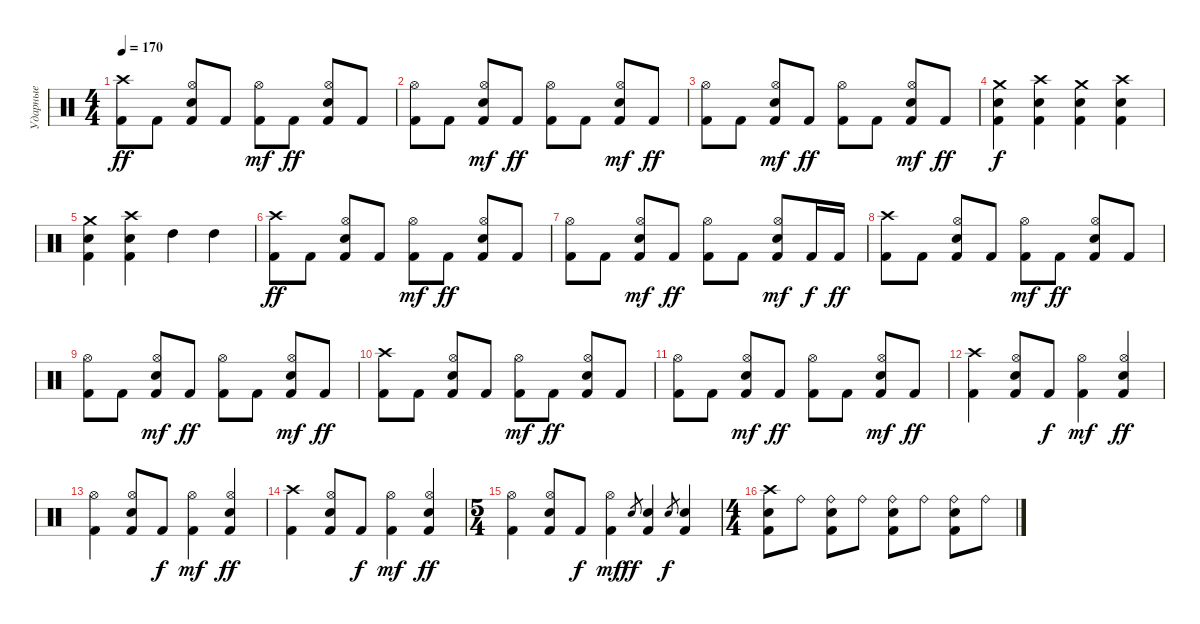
\track ("Ударные" "Ударные") {instrument percussion}
\staff {score}
\articulation defaults
\ts (4 4)
\tempo 170
\clef neutral
\ks c
("Crash high (hit)" "Kick (hit) 2").8{dy ff} "Kick (hit) 2".8 ("Hi-Hat (open)" "Kick (hit) 2" "Electric Snare (hit)").8 "Kick (hit) 2".8 ("Kick (hit) 2" "Hi-Hat (open)").8{dy mf} "Kick (hit) 2".8{dy ff} ("Kick (hit) 2" "Hi-Hat (open)" "Electric Snare (hit)").8 "Kick (hit) 2".8 |
("Hi-Hat (open)" "Kick (hit) 2").8 "Kick (hit) 2".8 ("Kick (hit) 2" "Electric Snare (hit)" "Hi-Hat (open)").8{dy mf} "Kick (hit) 2".8{dy ff} ("Hi-Hat (open)" "Kick (hit) 2").8 "Kick (hit) 2".8 ("Kick (hit) 2" "Electric Snare (hit)" "Hi-Hat (open)").8{dy mf} "Kick (hit) 2".8{dy ff} |
("Hi-Hat (open)" "Kick (hit) 2").8 "Kick (hit) 2".8 ("Kick (hit) 2" "Electric Snare (hit)" "Hi-Hat (open)").8{dy mf} "Kick (hit) 2".8{dy ff} ("Hi-Hat (open)" "Kick (hit) 2").8 "Kick (hit) 2".8 ("Kick (hit) 2" "Electric Snare (hit)" "Hi-Hat (open)").8{dy mf} "Kick (hit) 2".8{dy ff} |
("Crash medium (hit)" "Kick (hit) 2" "Electric Snare (hit)").4{dy f} ("Crash high (hit)" "Kick (hit) 2" "Electric Snare (hit)").4 ("Crash medium (hit)" "Electric Snare (hit)" "Kick (hit) 2").4 ("Crash high (hit)" "Kick (hit) 2" "Electric Snare (hit)").4 |
("Crash medium (hit)" "Kick (hit) 2" "Electric Snare (hit)").4 ("Crash high (hit)" "Kick (hit) 2" "Electric Snare (hit)").4 "High Tom (hit)".4 "High Tom (hit)".4 |
("Crash high (hit)" "Kick (hit) 2").8{dy ff} "Kick (hit) 2".8 ("Hi-Hat (open)" "Kick (hit) 2" "Electric Snare (hit)").8 "Kick (hit) 2".8 ("Kick (hit) 2" "Hi-Hat (open)").8{dy mf} "Kick (hit) 2".8{dy ff} ("Kick (hit) 2" "Hi-Hat (open)" "Electric Snare (hit)").8 "Kick (hit) 2".8 |
("Hi-Hat (open)" "Kick (hit) 2").8 "Kick (hit) 2".8 ("Kick (hit) 2" "Electric Snare (hit)" "Hi-Hat (open)").8{dy mf} "Kick (hit) 2".8{dy ff} ("Hi-Hat (open)" "Kick (hit) 2").8 "Kick (hit) 2".8 ("Kick (hit) 2" "Electric Snare (hit)" "Hi-Hat (open)").8{dy mf} "Kick (hit) 2".16{dy f} "Kick (hit) 2".16{dy ff} |
("Crash high (hit)" "Kick (hit) 2").8 "Kick (hit) 2".8 ("Hi-Hat (open)" "Kick (hit) 2" "Electric Snare (hit)").8 "Kick (hit) 2".8 ("Kick (hit) 2" "Hi-Hat (open)").8{dy mf} "Kick (hit) 2".8{dy ff} ("Kick (hit) 2" "Hi-Hat (open)" "Electric Snare (hit)").8 "Kick (hit) 2".8 |
("Hi-Hat (open)" "Kick (hit) 2").8 "Kick (hit) 2".8 ("Kick (hit) 2" "Electric Snare (hit)" "Hi-Hat (open)").8{dy mf} "Kick (hit) 2".8{dy ff} ("Hi-Hat (open)" "Kick (hit) 2").8 "Kick (hit) 2".8 ("Kick (hit) 2" "Electric Snare (hit)" "Hi-Hat (open)").8{dy mf} "Kick (hit) 2".8{dy ff} |
("Crash high (hit)" "Kick (hit) 2").8 "Kick (hit) 2".8 ("Hi-Hat (open)" "Kick (hit) 2" "Electric Snare (hit)").8 "Kick (hit) 2".8 ("Kick (hit) 2" "Hi-Hat (open)").8{dy mf} "Kick (hit) 2".8{dy ff} ("Kick (hit) 2" "Hi-Hat (open)" "Electric Snare (hit)").8 "Kick (hit) 2".8 |
("Hi-Hat (open)" "Kick (hit) 2").8 "Kick (hit) 2".8 ("Kick (hit) 2" "Electric Snare (hit)" "Hi-Hat (open)").8{dy mf} "Kick (hit) 2".8{dy ff} ("Hi-Hat (open)" "Kick (hit) 2").8 "Kick (hit) 2".8 ("Kick (hit) 2" "Electric Snare (hit)" "Hi-Hat (open)").8{dy mf} "Kick (hit) 2".8{dy ff} |
("Crash high (hit)" "Kick (hit) 2").4 ("Hi-Hat (open)" "Kick (hit) 2" "Electric Snare (hit)").8 "Kick (hit) 2".8{dy f} ("Kick (hit) 2" "Hi-Hat (open)").4{dy mf} ("Kick (hit) 2" "Hi-Hat (open)" "Electric Snare (hit)").4{dy ff} |
("Hi-Hat (open)" "Kick (hit) 2").4 ("Hi-Hat (open)" "Kick (hit) 2" "Electric Snare (hit)").8 "Kick (hit) 2".8{dy f} ("Kick (hit) 2" "Hi-Hat (open)").4{dy mf} ("Kick (hit) 2" "Hi-Hat (open)" "Electric Snare (hit)").4{dy ff} |
("Crash high (hit)" "Kick (hit) 2").4 ("Hi-Hat (open)" "Kick (hit) 2" "Electric Snare (hit)").8 "Kick (hit) 2".8{dy f} ("Kick (hit) 2" "Hi-Hat (open)").4{dy mf} ("Kick (hit) 2" "Hi-Hat (open)" "Electric Snare (hit)").4{dy ff} |
\ts (5 4)
("Hi-Hat (open)" "Kick (hit) 2").4 ("Hi-Hat (open)" "Kick (hit) 2" "Electric Snare (hit)").8 "Kick (hit) 2".8{dy f} ("Kick (hit) 2" "Hi-Hat (open)").4{dy mf} "Electric Snare (hit)".8{gr dy ff} ("Kick (hit) 2" "Electric Snare (hit)").4 "Electric Snare (hit)".8{gr dy f} ("Kick (hit) 2" "Electric Snare (hit)").4 |
\ts (4 4)
("Kick (hit) 2" "Crash high (hit)" "Electric Snare (hit)").8 "Ride (bell)".8 ("Ride (bell)" "Kick (hit) 2" "Electric Snare (hit)").8 "Ride (bell)".8 ("Ride (bell)" "Kick (hit) 2" "Electric Snare (hit)").8 "Ride (bell)".8 ("Ride (bell)" "Kick (hit) 2" "Electric Snare (hit)").8 "Ride (bell)".8
